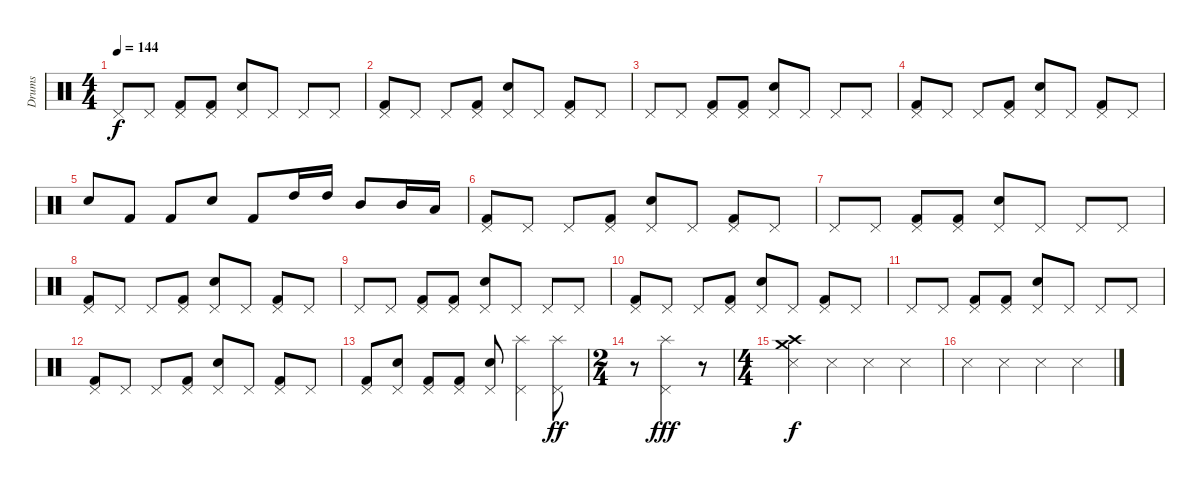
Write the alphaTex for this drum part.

\track ("Drums" "Drums") {instrument percussion}
\staff {score}
\articulation defaults
\ts (4 4)
\tempo 144
\clef neutral
\ks c "Pedal Hi-Hat (hit)".8{dy f} "Pedal Hi-Hat (hit)".8
("Kick (hit) 2" "Pedal Hi-Hat (hit)").8 ("Kick (hit) 2" "Pedal Hi-Hat (hit)").8 ("Electric Snare (hit)" "Pedal Hi-Hat (hit)").8 "Pedal Hi-Hat (hit)".8 "Pedal Hi-Hat (hit)".8 "Pedal Hi-Hat (hit)".8 |
("Kick (hit) 2" "Pedal Hi-Hat (hit)").8 "Pedal Hi-Hat (hit)".8 "Pedal Hi-Hat (hit)".8 ("Kick (hit) 2" "Pedal Hi-Hat (hit)").8 ("Electric Snare (hit)" "Pedal Hi-Hat (hit)").8 "Pedal Hi-Hat (hit)".8 ("Kick (hit) 2" "Pedal Hi-Hat (hit)").8 "Pedal Hi-Hat (hit)".8 |
"Pedal Hi-Hat (hit)".8 "Pedal Hi-Hat (hit)".8 ("Kick (hit) 2" "Pedal Hi-Hat (hit)").8 ("Kick (hit) 2" "Pedal Hi-Hat (hit)").8 ("Electric Snare (hit)" "Pedal Hi-Hat (hit)").8 "Pedal Hi-Hat (hit)".8 "Pedal Hi-Hat (hit)".8 "Pedal Hi-Hat (hit)".8 |
("Kick (hit) 2" "Pedal Hi-Hat (hit)").8 "Pedal Hi-Hat (hit)".8 "Pedal Hi-Hat (hit)".8 ("Kick (hit) 2" "Pedal Hi-Hat (hit)").8 ("Electric Snare (hit)" "Pedal Hi-Hat (hit)").8 "Pedal Hi-Hat (hit)".8 ("Kick (hit) 2" "Pedal Hi-Hat (hit)").8 "Pedal Hi-Hat (hit)".8 |
"Electric Snare (hit)".8 "Kick (hit) 2".8 "Kick (hit) 2".8 "Electric Snare (hit)".8 "Kick (hit) 2".8 "High Tom (hit)".16 "High Tom (hit)".16 "Mid Tom (hit)".8 "Mid Tom (hit)".16 "Low Tom (hit)".16 |
("Kick (hit) 2" "Pedal Hi-Hat (hit)").8 "Pedal Hi-Hat (hit)".8 "Pedal Hi-Hat (hit)".8 ("Kick (hit) 2" "Pedal Hi-Hat (hit)").8 ("Electric Snare (hit)" "Pedal Hi-Hat (hit)").8 "Pedal Hi-Hat (hit)".8 ("Kick (hit) 2" "Pedal Hi-Hat (hit)").8 "Pedal Hi-Hat (hit)".8 |
"Pedal Hi-Hat (hit)".8 "Pedal Hi-Hat (hit)".8 ("Kick (hit) 2" "Pedal Hi-Hat (hit)").8 ("Kick (hit) 2" "Pedal Hi-Hat (hit)").8 ("Electric Snare (hit)" "Pedal Hi-Hat (hit)").8 "Pedal Hi-Hat (hit)".8 "Pedal Hi-Hat (hit)".8 "Pedal Hi-Hat (hit)".8 |
("Kick (hit) 2" "Pedal Hi-Hat (hit)").8 "Pedal Hi-Hat (hit)".8 "Pedal Hi-Hat (hit)".8 ("Kick (hit) 2" "Pedal Hi-Hat (hit)").8 ("Electric Snare (hit)" "Pedal Hi-Hat (hit)").8 "Pedal Hi-Hat (hit)".8 ("Kick (hit) 2" "Pedal Hi-Hat (hit)").8 "Pedal Hi-Hat (hit)".8 |
"Pedal Hi-Hat (hit)".8 "Pedal Hi-Hat (hit)".8 ("Kick (hit) 2" "Pedal Hi-Hat (hit)").8 ("Kick (hit) 2" "Pedal Hi-Hat (hit)").8 ("Electric Snare (hit)" "Pedal Hi-Hat (hit)").8 "Pedal Hi-Hat (hit)".8 "Pedal Hi-Hat (hit)".8 "Pedal Hi-Hat (hit)".8 |
("Kick (hit) 2" "Pedal Hi-Hat (hit)").8 "Pedal Hi-Hat (hit)".8 "Pedal Hi-Hat (hit)".8 ("Kick (hit) 2" "Pedal Hi-Hat (hit)").8 ("Electric Snare (hit)" "Pedal Hi-Hat (hit)").8 "Pedal Hi-Hat (hit)".8 ("Kick (hit) 2" "Pedal Hi-Hat (hit)").8 "Pedal Hi-Hat (hit)".8 |
"Pedal Hi-Hat (hit)".8 "Pedal Hi-Hat (hit)".8 ("Kick (hit) 2" "Pedal Hi-Hat (hit)").8 ("Kick (hit) 2" "Pedal Hi-Hat (hit)").8 ("Electric Snare (hit)" "Pedal Hi-Hat (hit)").8 "Pedal Hi-Hat (hit)".8 "Pedal Hi-Hat (hit)".8 "Pedal Hi-Hat (hit)".8 |
("Kick (hit) 2" "Pedal Hi-Hat (hit)").8 "Pedal Hi-Hat (hit)".8 "Pedal Hi-Hat (hit)".8 ("Kick (hit) 2" "Pedal Hi-Hat (hit)").8 ("Electric Snare (hit)" "Pedal Hi-Hat (hit)").8 "Pedal Hi-Hat (hit)".8 ("Kick (hit) 2" "Pedal Hi-Hat (hit)").8 "Pedal Hi-Hat (hit)".8 |
("Kick (hit) 2" "Pedal Hi-Hat (hit)").8 ("Electric Snare (hit)" "Pedal Hi-Hat (hit)").8 ("Kick (hit) 2" "Pedal Hi-Hat (hit)").8 ("Kick (hit) 2" "Pedal Hi-Hat (hit)").8 ("Electric Snare (hit)" "Pedal Hi-Hat (hit)").8 ("Splash (hit)" "Pedal Hi-Hat (hit)").4 ("Splash (hit)" "Pedal Hi-Hat (hit)").8{dy ff} |
\ts (2 4)
r.8 ("Splash (hit)" "Pedal Hi-Hat (hit)").4{dy fff} r.8 |
\ts (4 4)
("Snare (side stick) 3" "Crash high (hit)" "Crash medium (hit)").4{dy f} "Snare (side stick) 3".4 "Snare (side stick) 3".4 "Snare (side stick) 3".4 |
"Snare (side stick) 3".4 "Snare (side stick) 3".4 "Snare (side stick) 3".4 "Snare (side stick) 3".4
